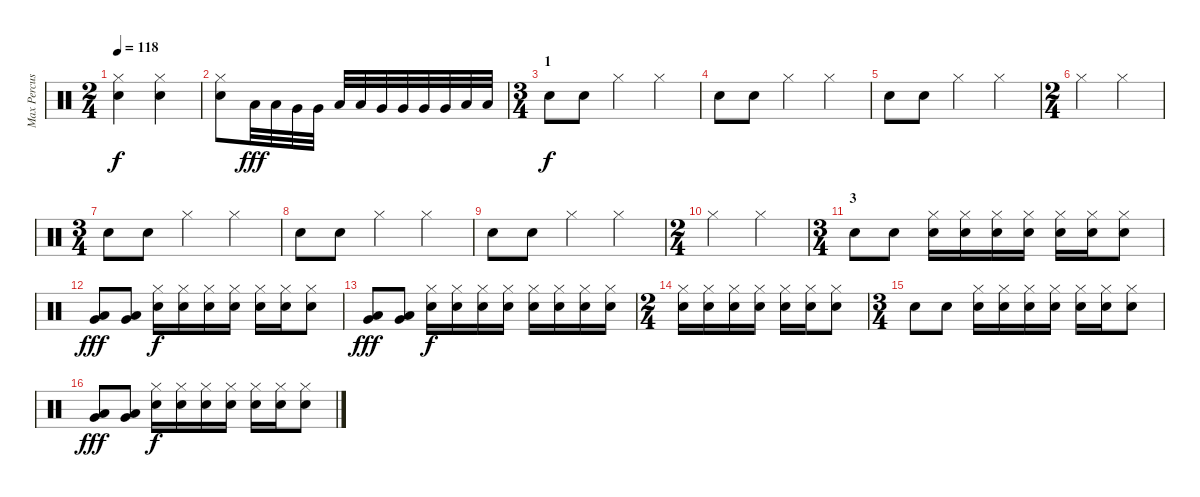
\track ("Max Percussion" "Max Percus") {instrument percussion}
\staff {score}
\articulation defaults
\ts (2 4)
\tempo 118
\clef neutral
\ks c
("Hi-Hat (closed)" "Snare (hit) 2").4{dy f} ("Hi-Hat (closed)" "Snare (hit) 2").4 |
("Hi-Hat (closed)" "Snare (hit) 2").8 "Low Tom (hit)".32{dy fff} "Low Tom (hit)".32 "Very Low Tom (hit)".32 "Very Low Tom (hit)".32 "Low Tom (hit)".32 "Low Tom (hit)".32 "Very Low Tom (hit)".32 "Very Low Tom (hit)".32 "Very Low Tom (hit)".32 "Very Low Tom (hit)".32 "Low Floor Tom (hit)".32 "Low Floor Tom (hit)".32 |
\ts (3 4)
\section ("" "1")
"Snare (hit) 2".8{dy f} "Snare (hit) 2".8 "Hi-Hat (closed)".4 "Hi-Hat (closed)".4 |
"Snare (hit) 2".8 "Snare (hit) 2".8 "Hi-Hat (closed)".4 "Hi-Hat (closed)".4 |
"Snare (hit) 2".8 "Snare (hit) 2".8 "Hi-Hat (closed)".4 "Hi-Hat (closed)".4 |
\ts (2 4)
"Hi-Hat (closed)".4 "Hi-Hat (closed)".4 |
\ts (3 4)
"Snare (hit) 2".8 "Snare (hit) 2".8 "Hi-Hat (closed)".4 "Hi-Hat (closed)".4 |
"Snare (hit) 2".8 "Snare (hit) 2".8 "Hi-Hat (closed)".4 "Hi-Hat (closed)".4 |
"Snare (hit) 2".8 "Snare (hit) 2".8 "Hi-Hat (closed)".4 "Hi-Hat (closed)".4 |
\ts (2 4)
"Hi-Hat (closed)".4 "Hi-Hat (closed)".4 |
\ts (3 4)
\section ("" "3")
"Snare (hit) 2".8 "Snare (hit) 2".8 ("Hi-Hat (closed)" "Snare (hit) 2").16 ("Hi-Hat (closed)" "Snare (hit) 2").16 ("Hi-Hat (closed)" "Snare (hit) 2").16 ("Hi-Hat (closed)" "Snare (hit) 2").16 ("Hi-Hat (closed)" "Snare (hit) 2").16 ("Hi-Hat (closed)" "Snare (hit) 2").16 ("Hi-Hat (closed)" "Snare (hit) 2").8 |
("Low Tom (hit)" "Very Low Tom (hit)").8{dy fff} ("Low Tom (hit)" "Very Low Tom (hit)").8 ("Hi-Hat (closed)" "Snare (hit) 2").16{dy f} ("Hi-Hat (closed)" "Snare (hit) 2").16 ("Hi-Hat (closed)" "Snare (hit) 2").16 ("Hi-Hat (closed)" "Snare (hit) 2").16 ("Hi-Hat (closed)" "Snare (hit) 2").16 ("Hi-Hat (closed)" "Snare (hit) 2").16 ("Hi-Hat (closed)" "Snare (hit) 2").8 |
("Very Low Tom (hit)" "Low Floor Tom (hit)").8{dy fff} ("Very Low Tom (hit)" "Low Floor Tom (hit)").8 ("Hi-Hat (closed)" "Snare (hit) 2").16{dy f} ("Hi-Hat (closed)" "Snare (hit) 2").16 ("Hi-Hat (closed)" "Snare (hit) 2").16 ("Hi-Hat (closed)" "Snare (hit) 2").16 ("Hi-Hat (closed)" "Snare (hit) 2").16 ("Hi-Hat (closed)" "Snare (hit) 2").16 ("Hi-Hat (closed)" "Snare (hit) 2").16 ("Hi-Hat (closed)" "Snare (hit) 2").16 |
\ts (2 4)
("Hi-Hat (closed)" "Snare (hit) 2").16 ("Hi-Hat (closed)" "Snare (hit) 2").16 ("Hi-Hat (closed)" "Snare (hit) 2").16 ("Hi-Hat (closed)" "Snare (hit) 2").16 ("Hi-Hat (closed)" "Snare (hit) 2").16 ("Hi-Hat (closed)" "Snare (hit) 2").16 ("Hi-Hat (closed)" "Snare (hit) 2").8 |
\ts (3 4)
"Snare (hit) 2".8 "Snare (hit) 2".8 ("Hi-Hat (closed)" "Snare (hit) 2").16 ("Hi-Hat (closed)" "Snare (hit) 2").16 ("Hi-Hat (closed)" "Snare (hit) 2").16 ("Hi-Hat (closed)" "Snare (hit) 2").16 ("Hi-Hat (closed)" "Snare (hit) 2").16 ("Hi-Hat (closed)" "Snare (hit) 2").16 ("Hi-Hat (closed)" "Snare (hit) 2").8 |
("Low Tom (hit)" "Very Low Tom (hit)").8{dy fff} ("Low Tom (hit)" "Very Low Tom (hit)").8 ("Hi-Hat (closed)" "Snare (hit) 2").16{dy f} ("Hi-Hat (closed)" "Snare (hit) 2").16 ("Hi-Hat (closed)" "Snare (hit) 2").16 ("Hi-Hat (closed)" "Snare (hit) 2").16 ("Hi-Hat (closed)" "Snare (hit) 2").16 ("Hi-Hat (closed)" "Snare (hit) 2").16 ("Hi-Hat (closed)" "Snare (hit) 2").8
